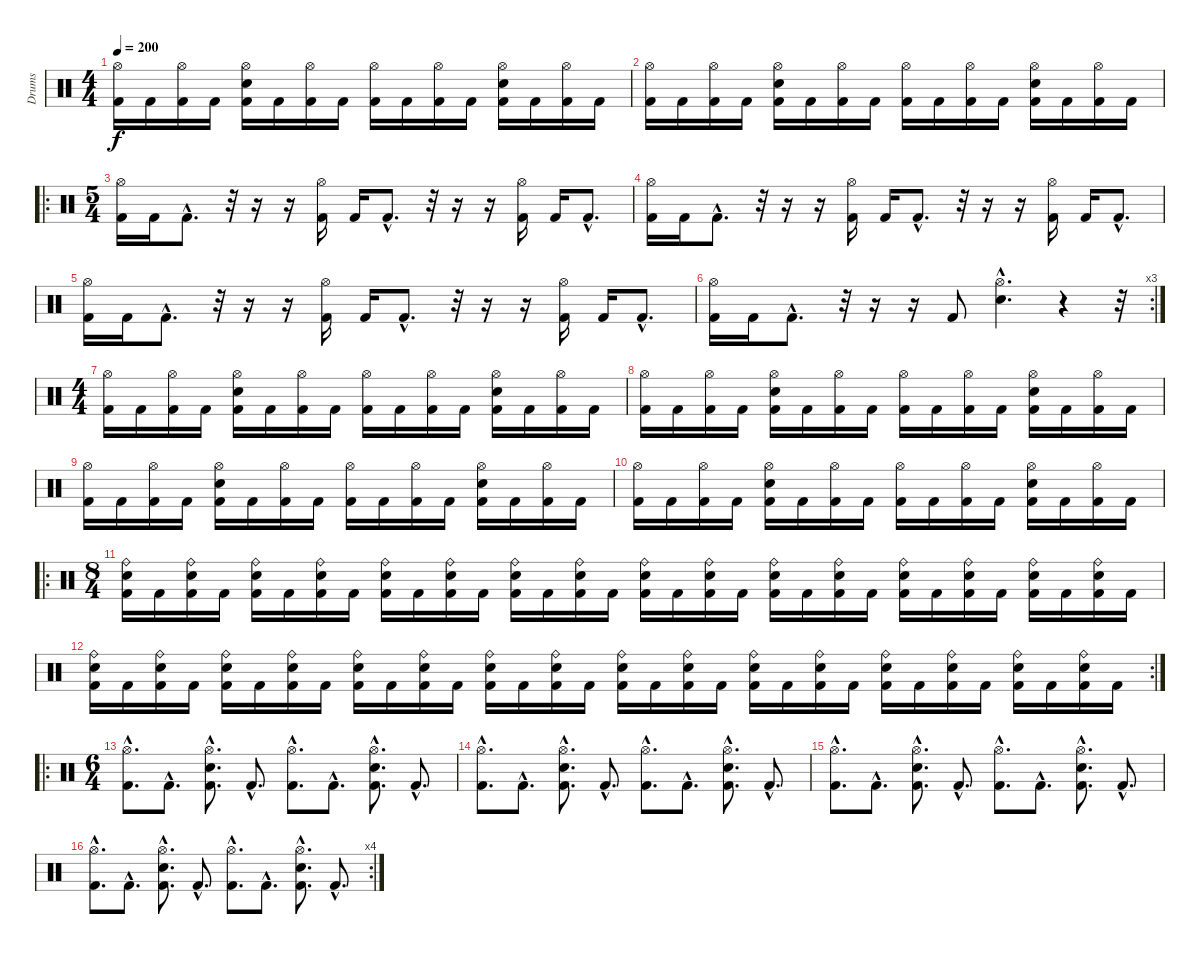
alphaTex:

\track ("Drums" "Drums") {instrument percussion}
\staff {score}
\articulation defaults
\ts (4 4)
\tempo 200
\clef neutral
\ks c
("Hi-Hat (open)" "Kick (hit) 2").16{dy f} "Kick (hit) 2".16 ("Hi-Hat (open)" "Kick (hit) 2").16 "Kick (hit) 2".16 ("Hi-Hat (open)" "Snare (hit) 2" "Kick (hit) 2").16 "Kick (hit) 2".16 ("Hi-Hat (open)" "Kick (hit) 2").16 "Kick (hit) 2".16 ("Hi-Hat (open)" "Kick (hit) 2").16 "Kick (hit) 2".16 ("Hi-Hat (open)" "Kick (hit) 2").16 "Kick (hit) 2".16 ("Hi-Hat (open)" "Snare (hit) 2" "Kick (hit) 2").16 "Kick (hit) 2".16 ("Hi-Hat (open)" "Kick (hit) 2").16 "Kick (hit) 2".16 |
("Hi-Hat (open)" "Kick (hit) 2").16 "Kick (hit) 2".16 ("Hi-Hat (open)" "Kick (hit) 2").16 "Kick (hit) 2".16 ("Hi-Hat (open)" "Snare (hit) 2" "Kick (hit) 2").16 "Kick (hit) 2".16 ("Hi-Hat (open)" "Kick (hit) 2").16 "Kick (hit) 2".16 ("Hi-Hat (open)" "Kick (hit) 2").16 "Kick (hit) 2".16 ("Hi-Hat (open)" "Kick (hit) 2").16 "Kick (hit) 2".16 ("Hi-Hat (open)" "Snare (hit) 2" "Kick (hit) 2").16 "Kick (hit) 2".16 ("Hi-Hat (open)" "Kick (hit) 2").16 "Kick (hit) 2".16 |
\ro
\ts (5 4)
("Hi-Hat (open)" "Kick (hit) 2").16 "Kick (hit) 2".16 "Kick (hit) 2"{hac}.8{d} r.32 r.16 r.16 ("Hi-Hat (open)" "Kick (hit) 2").16 "Kick (hit) 2".16 "Kick (hit) 2"{hac}.8{d} r.32 r.16 r.16 ("Hi-Hat (open)" "Kick (hit) 2").16 "Kick (hit) 2".16 "Kick (hit) 2"{hac}.8{d} |
("Hi-Hat (open)" "Kick (hit) 2").16 "Kick (hit) 2".16 "Kick (hit) 2"{hac}.8{d} r.32 r.16 r.16 ("Hi-Hat (open)" "Kick (hit) 2").16 "Kick (hit) 2".16 "Kick (hit) 2"{hac}.8{d} r.32 r.16 r.16 ("Hi-Hat (open)" "Kick (hit) 2").16 "Kick (hit) 2".16 "Kick (hit) 2"{hac}.8{d} |
("Hi-Hat (open)" "Kick (hit) 2").16 "Kick (hit) 2".16 "Kick (hit) 2"{hac}.8{d} r.32 r.16 r.16 ("Hi-Hat (open)" "Kick (hit) 2").16 "Kick (hit) 2".16 "Kick (hit) 2"{hac}.8{d} r.32 r.16 r.16 ("Hi-Hat (open)" "Kick (hit) 2").16 "Kick (hit) 2".16 "Kick (hit) 2"{hac}.8{d} |
\rc 3
("Hi-Hat (open)" "Kick (hit) 2").16 "Kick (hit) 2".16 "Kick (hit) 2"{hac}.8{d} r.32 r.16 r.16 "Kick (hit) 2".8 ("Hi-Hat (open)"{hac} "Snare (hit) 2"{hac}).4{d} r.4 r.32 |
\ts (4 4)
("Hi-Hat (open)" "Kick (hit) 2").16 "Kick (hit) 2".16 ("Hi-Hat (open)" "Kick (hit) 2").16 "Kick (hit) 2".16 ("Hi-Hat (open)" "Snare (hit) 2" "Kick (hit) 2").16 "Kick (hit) 2".16 ("Hi-Hat (open)" "Kick (hit) 2").16 "Kick (hit) 2".16 ("Hi-Hat (open)" "Kick (hit) 2").16 "Kick (hit) 2".16 ("Hi-Hat (open)" "Kick (hit) 2").16 "Kick (hit) 2".16 ("Hi-Hat (open)" "Snare (hit) 2" "Kick (hit) 2").16 "Kick (hit) 2".16 ("Hi-Hat (open)" "Kick (hit) 2").16 "Kick (hit) 2".16 |
("Hi-Hat (open)" "Kick (hit) 2").16 "Kick (hit) 2".16 ("Hi-Hat (open)" "Kick (hit) 2").16 "Kick (hit) 2".16 ("Hi-Hat (open)" "Snare (hit) 2" "Kick (hit) 2").16 "Kick (hit) 2".16 ("Hi-Hat (open)" "Kick (hit) 2").16 "Kick (hit) 2".16 ("Hi-Hat (open)" "Kick (hit) 2").16 "Kick (hit) 2".16 ("Hi-Hat (open)" "Kick (hit) 2").16 "Kick (hit) 2".16 ("Hi-Hat (open)" "Snare (hit) 2" "Kick (hit) 2").16 "Kick (hit) 2".16 ("Hi-Hat (open)" "Kick (hit) 2").16 "Kick (hit) 2".16 |
("Hi-Hat (open)" "Kick (hit) 2").16 "Kick (hit) 2".16 ("Hi-Hat (open)" "Kick (hit) 2").16 "Kick (hit) 2".16 ("Hi-Hat (open)" "Snare (hit) 2" "Kick (hit) 2").16 "Kick (hit) 2".16 ("Hi-Hat (open)" "Kick (hit) 2").16 "Kick (hit) 2".16 ("Hi-Hat (open)" "Kick (hit) 2").16 "Kick (hit) 2".16 ("Hi-Hat (open)" "Kick (hit) 2").16 "Kick (hit) 2".16 ("Hi-Hat (open)" "Snare (hit) 2" "Kick (hit) 2").16 "Kick (hit) 2".16 ("Hi-Hat (open)" "Kick (hit) 2").16 "Kick (hit) 2".16 |
("Hi-Hat (open)" "Kick (hit) 2").16 "Kick (hit) 2".16 ("Hi-Hat (open)" "Kick (hit) 2").16 "Kick (hit) 2".16 ("Hi-Hat (open)" "Snare (hit) 2" "Kick (hit) 2").16 "Kick (hit) 2".16 ("Hi-Hat (open)" "Kick (hit) 2").16 "Kick (hit) 2".16 ("Hi-Hat (open)" "Kick (hit) 2").16 "Kick (hit) 2".16 ("Hi-Hat (open)" "Kick (hit) 2").16 "Kick (hit) 2".16 ("Hi-Hat (open)" "Snare (hit) 2" "Kick (hit) 2").16 "Kick (hit) 2".16 ("Hi-Hat (open)" "Kick (hit) 2").16 "Kick (hit) 2".16 |
\ro
\ts (8 4)
("Ride (bell)" "Snare (hit) 2" "Kick (hit) 2").16 "Kick (hit) 2".16 ("Ride (bell)" "Snare (hit) 2" "Kick (hit) 2").16 "Kick (hit) 2".16 ("Ride (bell)" "Snare (hit) 2" "Kick (hit) 2").16 "Kick (hit) 2".16 ("Ride (bell)" "Snare (hit) 2" "Kick (hit) 2").16 "Kick (hit) 2".16 ("Ride (bell)" "Snare (hit) 2" "Kick (hit) 2").16 "Kick (hit) 2".16 ("Ride (bell)" "Snare (hit) 2" "Kick (hit) 2").16 "Kick (hit) 2".16 ("Ride (bell)" "Snare (hit) 2" "Kick (hit) 2").16 "Kick (hit) 2".16 ("Ride (bell)" "Snare (hit) 2" "Kick (hit) 2").16 "Kick (hit) 2".16 ("Ride (bell)" "Snare (hit) 2" "Kick (hit) 2").16 "Kick (hit) 2".16 ("Ride (bell)" "Snare (hit) 2" "Kick (hit) 2").16 "Kick (hit) 2".16 ("Ride (bell)" "Snare (hit) 2" "Kick (hit) 2").16 "Kick (hit) 2".16 ("Ride (bell)" "Snare (hit) 2" "Kick (hit) 2").16 "Kick (hit) 2".16 ("Ride (bell)" "Snare (hit) 2" "Kick (hit) 2").16 "Kick (hit) 2".16 ("Ride (bell)" "Snare (hit) 2" "Kick (hit) 2").16 "Kick (hit) 2".16 ("Ride (bell)" "Snare (hit) 2" "Kick (hit) 2").16 "Kick (hit) 2".16 ("Ride (bell)" "Snare (hit) 2" "Kick (hit) 2").16 "Kick (hit) 2".16 |
\rc 2
("Ride (bell)" "Snare (hit) 2" "Kick (hit) 2").16 "Kick (hit) 2".16 ("Ride (bell)" "Snare (hit) 2" "Kick (hit) 2").16 "Kick (hit) 2".16 ("Ride (bell)" "Snare (hit) 2" "Kick (hit) 2").16 "Kick (hit) 2".16 ("Ride (bell)" "Snare (hit) 2" "Kick (hit) 2").16 "Kick (hit) 2".16 ("Ride (bell)" "Snare (hit) 2" "Kick (hit) 2").16 "Kick (hit) 2".16 ("Ride (bell)" "Snare (hit) 2" "Kick (hit) 2").16 "Kick (hit) 2".16 ("Ride (bell)" "Snare (hit) 2" "Kick (hit) 2").16 "Kick (hit) 2".16 ("Ride (bell)" "Snare (hit) 2" "Kick (hit) 2").16 "Kick (hit) 2".16 ("Ride (bell)" "Snare (hit) 2" "Kick (hit) 2").16 "Kick (hit) 2".16 ("Ride (bell)" "Snare (hit) 2" "Kick (hit) 2").16 "Kick (hit) 2".16 ("Ride (bell)" "Snare (hit) 2" "Kick (hit) 2").16 "Kick (hit) 2".16 ("Ride (bell)" "Snare (hit) 2" "Kick (hit) 2").16 "Kick (hit) 2".16 ("Ride (bell)" "Snare (hit) 2" "Kick (hit) 2").16 "Kick (hit) 2".16 ("Ride (bell)" "Snare (hit) 2" "Kick (hit) 2").16 "Kick (hit) 2".16 ("Ride (bell)" "Snare (hit) 2" "Kick (hit) 2").16 "Kick (hit) 2".16 ("Ride (bell)" "Snare (hit) 2" "Kick (hit) 2").16 "Kick (hit) 2".16 |
\ro
\ts (6 4)
("Hi-Hat (open)"{hac} "Kick (hit) 2"{hac}).8{d} "Kick (hit) 2"{hac}.8{d} ("Hi-Hat (open)"{hac} "Snare (hit) 2"{hac} "Kick (hit) 2"{hac}).8{d} "Kick (hit) 2"{hac}.8{d} ("Hi-Hat (open)"{hac} "Kick (hit) 2"{hac}).8{d} "Kick (hit) 2"{hac}.8{d} ("Hi-Hat (open)"{hac} "Snare (hit) 2"{hac} "Kick (hit) 2"{hac}).8{d} "Kick (hit) 2"{hac}.8{d} |
("Hi-Hat (open)"{hac} "Kick (hit) 2"{hac}).8{d} "Kick (hit) 2"{hac}.8{d} ("Hi-Hat (open)"{hac} "Snare (hit) 2"{hac} "Kick (hit) 2"{hac}).8{d} "Kick (hit) 2"{hac}.8{d} ("Hi-Hat (open)"{hac} "Kick (hit) 2"{hac}).8{d} "Kick (hit) 2"{hac}.8{d} ("Hi-Hat (open)"{hac} "Snare (hit) 2"{hac} "Kick (hit) 2"{hac}).8{d} "Kick (hit) 2"{hac}.8{d} |
("Hi-Hat (open)"{hac} "Kick (hit) 2"{hac}).8{d} "Kick (hit) 2"{hac}.8{d} ("Hi-Hat (open)"{hac} "Snare (hit) 2"{hac} "Kick (hit) 2"{hac}).8{d} "Kick (hit) 2"{hac}.8{d} ("Hi-Hat (open)"{hac} "Kick (hit) 2"{hac}).8{d} "Kick (hit) 2"{hac}.8{d} ("Hi-Hat (open)"{hac} "Snare (hit) 2"{hac} "Kick (hit) 2"{hac}).8{d} "Kick (hit) 2"{hac}.8{d} |
\rc 4
("Hi-Hat (open)"{hac} "Kick (hit) 2"{hac}).8{d} "Kick (hit) 2"{hac}.8{d} ("Hi-Hat (open)"{hac} "Snare (hit) 2"{hac} "Kick (hit) 2"{hac}).8{d} "Kick (hit) 2"{hac}.8{d} ("Hi-Hat (open)"{hac} "Kick (hit) 2"{hac}).8{d} "Kick (hit) 2"{hac}.8{d} ("Hi-Hat (open)"{hac} "Snare (hit) 2"{hac} "Kick (hit) 2"{hac}).8{d} "Kick (hit) 2"{hac}.8{d}
